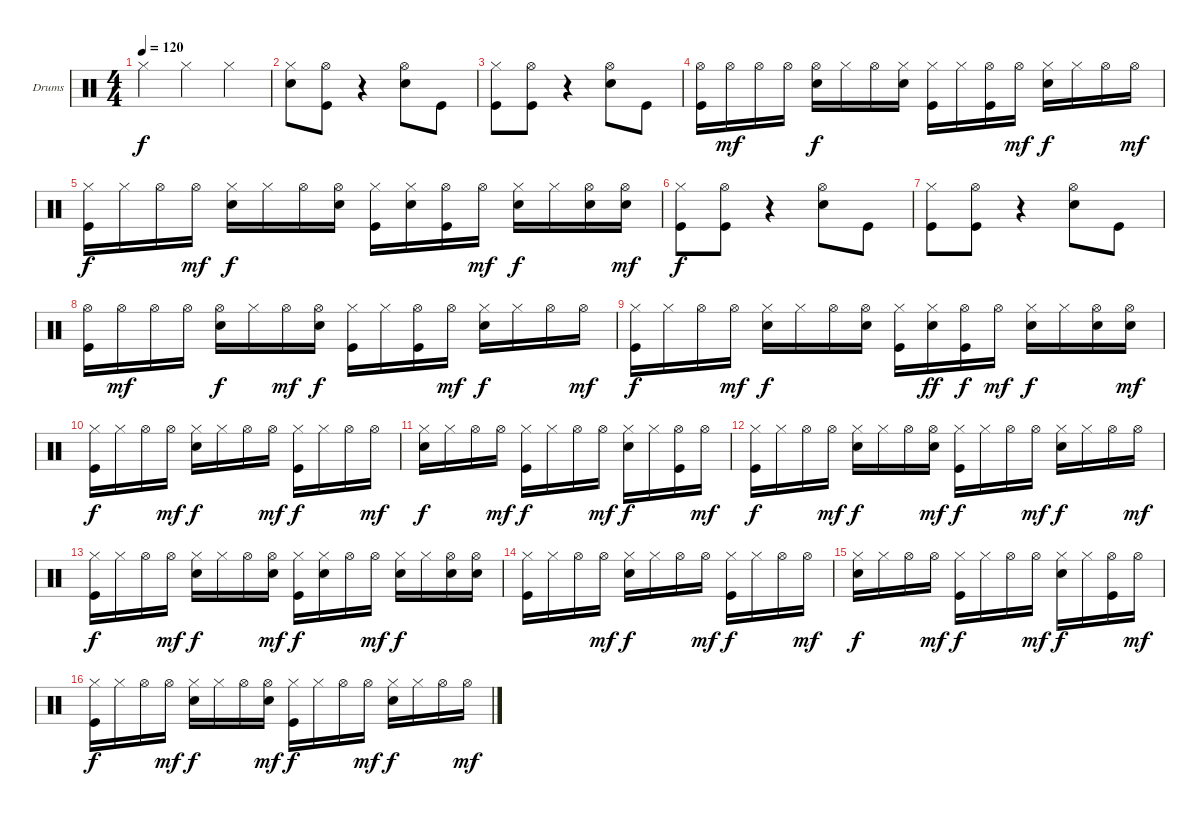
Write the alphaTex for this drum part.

\defaultSystemsLayout 4
\bracketExtendMode groupsimilarinstruments
\firstSystemTrackNameOrientation horizontal
\otherSystemsTrackNameOrientation horizontal
\track ("Г.Гурьянов-Ударные" "Drums") {instrument percussion}
\staff {score}
\articulation defaults
\ts (4 4)
\tempo 120
\clef neutral
\ks c "Hi-Hat (closed)".4{dy f} "Hi-Hat (closed)".4 "Hi-Hat (closed)".4
|
("Snare (hit) 2" "Hi-Hat (closed)").8 ("Hi-Hat (open)" "Kick (hit)").8 r.4 ("Hi-Hat (open)" "Snare (hit) 2").8 "Kick (hit)".8 |
("Hi-Hat (closed)" "Kick (hit)").8 ("Hi-Hat (open)" "Kick (hit)").8 r.4 ("Snare (hit) 2" "Hi-Hat (open)").8 "Kick (hit)".8 |
("Kick (hit)" "Hi-Hat (open)").16 "Hi-Hat (open)".16{dy mf} "Hi-Hat (open)".16 "Hi-Hat (open)".16 ("Snare (hit) 2" "Hi-Hat (open)").16{dy f} "Hi-Hat (closed)".16 "Hi-Hat (open)".16 ("Snare (hit) 2" "Hi-Hat (closed)").16 ("Hi-Hat (closed)" "Kick (hit)").16 "Hi-Hat (closed)".16 ("Hi-Hat (open)" "Kick (hit)").16 "Hi-Hat (open)".16{dy mf} ("Snare (hit) 2" "Hi-Hat (closed)").16{dy f} "Hi-Hat (closed)".16 "Hi-Hat (open)".16 "Hi-Hat (open)".16{dy mf} |
("Hi-Hat (closed)" "Kick (hit)").16{dy f} "Hi-Hat (closed)".16 "Hi-Hat (open)".16 "Hi-Hat (open)".16{dy mf} ("Hi-Hat (closed)" "Snare (hit) 2").16{dy f} "Hi-Hat (closed)".16 "Hi-Hat (open)".16 ("Snare (hit) 2" "Hi-Hat (open)").16 ("Hi-Hat (closed)" "Kick (hit)").16 ("Snare (hit) 2" "Hi-Hat (closed)").16 ("Hi-Hat (open)" "Kick (hit)").16 "Hi-Hat (open)".16{dy mf} ("Snare (hit) 2" "Hi-Hat (closed)").16{dy f} "Hi-Hat (closed)".16 ("Hi-Hat (open)" "Snare (hit) 2").16 ("Hi-Hat (open)" "Snare (hit) 2").16{dy mf} |
("Hi-Hat (closed)" "Kick (hit)").8{dy f} ("Hi-Hat (open)" "Kick (hit)").8 r.4 ("Hi-Hat (open)" "Snare (hit) 2").8 "Kick (hit)".8 |
("Hi-Hat (closed)" "Kick (hit)").8 ("Hi-Hat (open)" "Kick (hit)").8 r.4 ("Snare (hit) 2" "Hi-Hat (open)").8 "Kick (hit)".8 |
("Kick (hit)" "Hi-Hat (open)").16 "Hi-Hat (open)".16{dy mf} "Hi-Hat (open)".16 "Hi-Hat (open)".16 ("Snare (hit) 2" "Hi-Hat (open)").16{dy f} "Hi-Hat (closed)".16 "Hi-Hat (open)".16{dy mf} ("Snare (hit) 2" "Hi-Hat (open)").16{dy f} ("Hi-Hat (closed)" "Kick (hit)").16 "Hi-Hat (closed)".16 ("Hi-Hat (open)" "Kick (hit)").16 "Hi-Hat (open)".16{dy mf} ("Snare (hit) 2" "Hi-Hat (closed)").16{dy f} "Hi-Hat (closed)".16 "Hi-Hat (open)".16 "Hi-Hat (open)".16{dy mf} |
("Hi-Hat (closed)" "Kick (hit)").16{dy f} "Hi-Hat (closed)".16 "Hi-Hat (open)".16 "Hi-Hat (open)".16{dy mf} ("Hi-Hat (closed)" "Snare (hit) 2").16{dy f} "Hi-Hat (closed)".16 "Hi-Hat (open)".16 ("Snare (hit) 2" "Hi-Hat (open)").16 ("Hi-Hat (closed)" "Kick (hit)").16 ("Snare (hit) 2" "Hi-Hat (closed)").16{dy ff} ("Hi-Hat (open)" "Kick (hit)").16{dy f} "Hi-Hat (open)".16{dy mf} ("Snare (hit) 2" "Hi-Hat (closed)").16{dy f} "Hi-Hat (closed)".16 ("Hi-Hat (open)" "Snare (hit) 2").16 ("Hi-Hat (open)" "Snare (hit) 2").16{dy mf} |
("Hi-Hat (closed)" "Kick (hit)").16{dy f} "Hi-Hat (closed)".16 "Hi-Hat (open)".16 "Hi-Hat (open)".16{dy mf} ("Snare (hit) 2" "Hi-Hat (closed)").16{dy f} "Hi-Hat (closed)".16 "Hi-Hat (open)".16 "Hi-Hat (open)".16{dy mf} ("Kick (hit)" "Hi-Hat (closed)").16{dy f} "Hi-Hat (closed)".16 "Hi-Hat (open)".16 "Hi-Hat (open)".16{dy mf} |
("Snare (hit) 2" "Hi-Hat (closed)").16{dy f} "Hi-Hat (closed)".16 "Hi-Hat (open)".16 "Hi-Hat (open)".16{dy mf} ("Kick (hit)" "Hi-Hat (closed)").16{dy f} "Hi-Hat (closed)".16 "Hi-Hat (open)".16 "Hi-Hat (open)".16{dy mf} ("Snare (hit) 2" "Hi-Hat (closed)").16{dy f} "Hi-Hat (closed)".16 ("Kick (hit)" "Hi-Hat (open)").16 "Hi-Hat (open)".16{dy mf} |
("Kick (hit)" "Hi-Hat (closed)").16{dy f} "Hi-Hat (closed)".16 "Hi-Hat (open)".16 "Hi-Hat (open)".16{dy mf} ("Snare (hit) 2" "Hi-Hat (closed)").16{dy f} "Hi-Hat (closed)".16 "Hi-Hat (open)".16 ("Hi-Hat (open)" "Snare (hit) 2").16{dy mf} ("Hi-Hat (closed)" "Kick (hit)").16{dy f} "Hi-Hat (closed)".16 "Hi-Hat (open)".16 "Hi-Hat (open)".16{dy mf} ("Snare (hit) 2" "Hi-Hat (closed)").16{dy f} "Hi-Hat (closed)".16 "Hi-Hat (open)".16 "Hi-Hat (open)".16{dy mf} |
("Kick (hit)" "Hi-Hat (closed)").16{dy f} "Hi-Hat (closed)".16 "Hi-Hat (open)".16 "Hi-Hat (open)".16{dy mf} ("Snare (hit) 2" "Hi-Hat (closed)").16{dy f} "Hi-Hat (closed)".16 "Hi-Hat (open)".16 ("Hi-Hat (open)" "Snare (hit) 2").16{dy mf} ("Hi-Hat (closed)" "Kick (hit)").16{dy f} ("Snare (hit) 2" "Hi-Hat (closed)").16 "Hi-Hat (open)".16 "Hi-Hat (open)".16{dy mf} ("Snare (hit) 2" "Hi-Hat (closed)").16{dy f} "Hi-Hat (closed)".16 ("Snare (hit) 2" "Hi-Hat (open)").16 ("Snare (hit) 2" "Hi-Hat (open)").16 |
("Hi-Hat (closed)" "Kick (hit)").16 "Hi-Hat (closed)".16 "Hi-Hat (open)".16 "Hi-Hat (open)".16{dy mf} ("Snare (hit) 2" "Hi-Hat (closed)").16{dy f} "Hi-Hat (closed)".16 "Hi-Hat (open)".16 "Hi-Hat (open)".16{dy mf} ("Kick (hit)" "Hi-Hat (closed)").16{dy f} "Hi-Hat (closed)".16 "Hi-Hat (open)".16 "Hi-Hat (open)".16{dy mf} |
("Snare (hit) 2" "Hi-Hat (closed)").16{dy f} "Hi-Hat (closed)".16 "Hi-Hat (open)".16 "Hi-Hat (open)".16{dy mf} ("Kick (hit)" "Hi-Hat (closed)").16{dy f} "Hi-Hat (closed)".16 "Hi-Hat (open)".16 "Hi-Hat (open)".16{dy mf} ("Snare (hit) 2" "Hi-Hat (closed)").16{dy f} "Hi-Hat (closed)".16 ("Kick (hit)" "Hi-Hat (open)").16 "Hi-Hat (open)".16{dy mf} |
("Kick (hit)" "Hi-Hat (closed)").16{dy f} "Hi-Hat (closed)".16 "Hi-Hat (open)".16 "Hi-Hat (open)".16{dy mf} ("Snare (hit) 2" "Hi-Hat (closed)").16{dy f} "Hi-Hat (closed)".16 "Hi-Hat (open)".16 ("Hi-Hat (open)" "Snare (hit) 2").16{dy mf} ("Hi-Hat (closed)" "Kick (hit)").16{dy f} "Hi-Hat (closed)".16 "Hi-Hat (open)".16 "Hi-Hat (open)".16{dy mf} ("Snare (hit) 2" "Hi-Hat (closed)").16{dy f} "Hi-Hat (closed)".16 "Hi-Hat (open)".16 "Hi-Hat (open)".16{dy mf}
